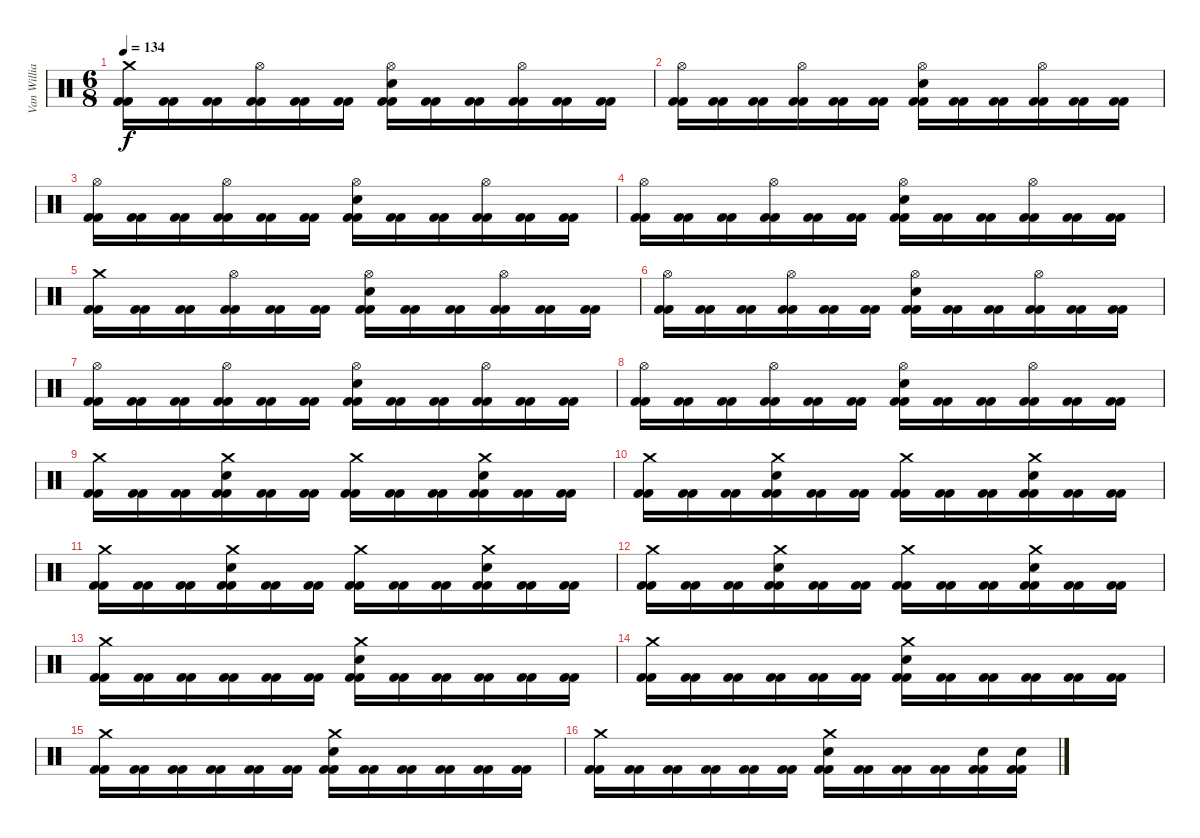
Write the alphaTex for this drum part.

\track ("Van Williams" "Van Willia") {instrument percussion}
\staff {score}
\articulation defaults
\ts (6 8)
\tempo 134
\clef neutral
\ks c
("Crash medium (hit)" "Kick (hit) 2" "Kick (hit) 2").16{dy f} ("Kick (hit) 2" "Kick (hit) 2").16 ("Kick (hit) 2" "Kick (hit) 2").16 ("Hi-Hat (open)" "Kick (hit) 2" "Kick (hit) 2").16 ("Kick (hit) 2" "Kick (hit) 2").16 ("Kick (hit) 2" "Kick (hit) 2").16 ("Hi-Hat (open)" "Electric Snare (hit)" "Kick (hit) 2" "Kick (hit) 2").16 ("Kick (hit) 2" "Kick (hit) 2").16 ("Kick (hit) 2" "Kick (hit) 2").16 ("Hi-Hat (open)" "Kick (hit) 2" "Kick (hit) 2").16 ("Kick (hit) 2" "Kick (hit) 2").16 ("Kick (hit) 2" "Kick (hit) 2").16 |
("Hi-Hat (open)" "Kick (hit) 2" "Kick (hit) 2").16 ("Kick (hit) 2" "Kick (hit) 2").16 ("Kick (hit) 2" "Kick (hit) 2").16 ("Hi-Hat (open)" "Kick (hit) 2" "Kick (hit) 2").16 ("Kick (hit) 2" "Kick (hit) 2").16 ("Kick (hit) 2" "Kick (hit) 2").16 ("Hi-Hat (open)" "Electric Snare (hit)" "Kick (hit) 2" "Kick (hit) 2").16 ("Kick (hit) 2" "Kick (hit) 2").16 ("Kick (hit) 2" "Kick (hit) 2").16 ("Hi-Hat (open)" "Kick (hit) 2" "Kick (hit) 2").16 ("Kick (hit) 2" "Kick (hit) 2").16 ("Kick (hit) 2" "Kick (hit) 2").16 |
("Hi-Hat (open)" "Kick (hit) 2" "Kick (hit) 2").16 ("Kick (hit) 2" "Kick (hit) 2").16 ("Kick (hit) 2" "Kick (hit) 2").16 ("Hi-Hat (open)" "Kick (hit) 2" "Kick (hit) 2").16 ("Kick (hit) 2" "Kick (hit) 2").16 ("Kick (hit) 2" "Kick (hit) 2").16 ("Hi-Hat (open)" "Electric Snare (hit)" "Kick (hit) 2" "Kick (hit) 2").16 ("Kick (hit) 2" "Kick (hit) 2").16 ("Kick (hit) 2" "Kick (hit) 2").16 ("Hi-Hat (open)" "Kick (hit) 2" "Kick (hit) 2").16 ("Kick (hit) 2" "Kick (hit) 2").16 ("Kick (hit) 2" "Kick (hit) 2").16 |
("Hi-Hat (open)" "Kick (hit) 2" "Kick (hit) 2").16 ("Kick (hit) 2" "Kick (hit) 2").16 ("Kick (hit) 2" "Kick (hit) 2").16 ("Hi-Hat (open)" "Kick (hit) 2" "Kick (hit) 2").16 ("Kick (hit) 2" "Kick (hit) 2").16 ("Kick (hit) 2" "Kick (hit) 2").16 ("Hi-Hat (open)" "Electric Snare (hit)" "Kick (hit) 2" "Kick (hit) 2").16 ("Kick (hit) 2" "Kick (hit) 2").16 ("Kick (hit) 2" "Kick (hit) 2").16 ("Hi-Hat (open)" "Kick (hit) 2" "Kick (hit) 2").16 ("Kick (hit) 2" "Kick (hit) 2").16 ("Kick (hit) 2" "Kick (hit) 2").16 |
("Crash medium (hit)" "Kick (hit) 2" "Kick (hit) 2").16 ("Kick (hit) 2" "Kick (hit) 2").16 ("Kick (hit) 2" "Kick (hit) 2").16 ("Hi-Hat (open)" "Kick (hit) 2" "Kick (hit) 2").16 ("Kick (hit) 2" "Kick (hit) 2").16 ("Kick (hit) 2" "Kick (hit) 2").16 ("Hi-Hat (open)" "Electric Snare (hit)" "Kick (hit) 2" "Kick (hit) 2").16 ("Kick (hit) 2" "Kick (hit) 2").16 ("Kick (hit) 2" "Kick (hit) 2").16 ("Hi-Hat (open)" "Kick (hit) 2" "Kick (hit) 2").16 ("Kick (hit) 2" "Kick (hit) 2").16 ("Kick (hit) 2" "Kick (hit) 2").16 |
("Hi-Hat (open)" "Kick (hit) 2" "Kick (hit) 2").16 ("Kick (hit) 2" "Kick (hit) 2").16 ("Kick (hit) 2" "Kick (hit) 2").16 ("Hi-Hat (open)" "Kick (hit) 2" "Kick (hit) 2").16 ("Kick (hit) 2" "Kick (hit) 2").16 ("Kick (hit) 2" "Kick (hit) 2").16 ("Hi-Hat (open)" "Electric Snare (hit)" "Kick (hit) 2" "Kick (hit) 2").16 ("Kick (hit) 2" "Kick (hit) 2").16 ("Kick (hit) 2" "Kick (hit) 2").16 ("Hi-Hat (open)" "Kick (hit) 2" "Kick (hit) 2").16 ("Kick (hit) 2" "Kick (hit) 2").16 ("Kick (hit) 2" "Kick (hit) 2").16 |
("Hi-Hat (open)" "Kick (hit) 2" "Kick (hit) 2").16 ("Kick (hit) 2" "Kick (hit) 2").16 ("Kick (hit) 2" "Kick (hit) 2").16 ("Hi-Hat (open)" "Kick (hit) 2" "Kick (hit) 2").16 ("Kick (hit) 2" "Kick (hit) 2").16 ("Kick (hit) 2" "Kick (hit) 2").16 ("Hi-Hat (open)" "Electric Snare (hit)" "Kick (hit) 2" "Kick (hit) 2").16 ("Kick (hit) 2" "Kick (hit) 2").16 ("Kick (hit) 2" "Kick (hit) 2").16 ("Hi-Hat (open)" "Kick (hit) 2" "Kick (hit) 2").16 ("Kick (hit) 2" "Kick (hit) 2").16 ("Kick (hit) 2" "Kick (hit) 2").16 |
("Hi-Hat (open)" "Kick (hit) 2" "Kick (hit) 2").16 ("Kick (hit) 2" "Kick (hit) 2").16 ("Kick (hit) 2" "Kick (hit) 2").16 ("Hi-Hat (open)" "Kick (hit) 2" "Kick (hit) 2").16 ("Kick (hit) 2" "Kick (hit) 2").16 ("Kick (hit) 2" "Kick (hit) 2").16 ("Hi-Hat (open)" "Electric Snare (hit)" "Kick (hit) 2" "Kick (hit) 2").16 ("Kick (hit) 2" "Kick (hit) 2").16 ("Kick (hit) 2" "Kick (hit) 2").16 ("Hi-Hat (open)" "Kick (hit) 2" "Kick (hit) 2").16 ("Kick (hit) 2" "Kick (hit) 2").16 ("Kick (hit) 2" "Kick (hit) 2").16 |
("Crash medium (hit)" "Kick (hit) 2" "Kick (hit) 2").16 ("Kick (hit) 2" "Kick (hit) 2").16 ("Kick (hit) 2" "Kick (hit) 2").16 ("Crash medium (hit)" "Electric Snare (hit)" "Kick (hit) 2" "Kick (hit) 2").16 ("Kick (hit) 2" "Kick (hit) 2").16 ("Kick (hit) 2" "Kick (hit) 2").16 ("Crash medium (hit)" "Kick (hit) 2" "Kick (hit) 2").16 ("Kick (hit) 2" "Kick (hit) 2").16 ("Kick (hit) 2" "Kick (hit) 2").16 ("Crash medium (hit)" "Electric Snare (hit)" "Kick (hit) 2" "Kick (hit) 2").16 ("Kick (hit) 2" "Kick (hit) 2").16 ("Kick (hit) 2" "Kick (hit) 2").16 |
("Crash medium (hit)" "Kick (hit) 2" "Kick (hit) 2").16 ("Kick (hit) 2" "Kick (hit) 2").16 ("Kick (hit) 2" "Kick (hit) 2").16 ("Crash medium (hit)" "Electric Snare (hit)" "Kick (hit) 2" "Kick (hit) 2").16 ("Kick (hit) 2" "Kick (hit) 2").16 ("Kick (hit) 2" "Kick (hit) 2").16 ("Crash medium (hit)" "Kick (hit) 2" "Kick (hit) 2").16 ("Kick (hit) 2" "Kick (hit) 2").16 ("Kick (hit) 2" "Kick (hit) 2").16 ("Crash medium (hit)" "Electric Snare (hit)" "Kick (hit) 2" "Kick (hit) 2").16 ("Kick (hit) 2" "Kick (hit) 2").16 ("Kick (hit) 2" "Kick (hit) 2").16 |
("Crash medium (hit)" "Kick (hit) 2" "Kick (hit) 2").16 ("Kick (hit) 2" "Kick (hit) 2").16 ("Kick (hit) 2" "Kick (hit) 2").16 ("Crash medium (hit)" "Electric Snare (hit)" "Kick (hit) 2" "Kick (hit) 2").16 ("Kick (hit) 2" "Kick (hit) 2").16 ("Kick (hit) 2" "Kick (hit) 2").16 ("Crash medium (hit)" "Kick (hit) 2" "Kick (hit) 2").16 ("Kick (hit) 2" "Kick (hit) 2").16 ("Kick (hit) 2" "Kick (hit) 2").16 ("Crash medium (hit)" "Electric Snare (hit)" "Kick (hit) 2" "Kick (hit) 2").16 ("Kick (hit) 2" "Kick (hit) 2").16 ("Kick (hit) 2" "Kick (hit) 2").16 |
("Crash medium (hit)" "Kick (hit) 2" "Kick (hit) 2").16 ("Kick (hit) 2" "Kick (hit) 2").16 ("Kick (hit) 2" "Kick (hit) 2").16 ("Crash medium (hit)" "Electric Snare (hit)" "Kick (hit) 2" "Kick (hit) 2").16 ("Kick (hit) 2" "Kick (hit) 2").16 ("Kick (hit) 2" "Kick (hit) 2").16 ("Crash medium (hit)" "Kick (hit) 2" "Kick (hit) 2").16 ("Kick (hit) 2" "Kick (hit) 2").16 ("Kick (hit) 2" "Kick (hit) 2").16 ("Crash medium (hit)" "Electric Snare (hit)" "Kick (hit) 2" "Kick (hit) 2").16 ("Kick (hit) 2" "Kick (hit) 2").16 ("Kick (hit) 2" "Kick (hit) 2").16 |
("Crash medium (hit)" "Kick (hit) 2" "Kick (hit) 2").16 ("Kick (hit) 2" "Kick (hit) 2").16 ("Kick (hit) 2" "Kick (hit) 2").16 ("Kick (hit) 2" "Kick (hit) 2").16 ("Kick (hit) 2" "Kick (hit) 2").16 ("Kick (hit) 2" "Kick (hit) 2").16 ("Crash medium (hit)" "Electric Snare (hit)" "Kick (hit) 2" "Kick (hit) 2").16 ("Kick (hit) 2" "Kick (hit) 2").16 ("Kick (hit) 2" "Kick (hit) 2").16 ("Kick (hit) 2" "Kick (hit) 2").16 ("Kick (hit) 2" "Kick (hit) 2").16 ("Kick (hit) 2" "Kick (hit) 2").16 |
("Crash medium (hit)" "Kick (hit) 2" "Kick (hit) 2").16 ("Kick (hit) 2" "Kick (hit) 2").16 ("Kick (hit) 2" "Kick (hit) 2").16 ("Kick (hit) 2" "Kick (hit) 2").16 ("Kick (hit) 2" "Kick (hit) 2").16 ("Kick (hit) 2" "Kick (hit) 2").16 ("Crash medium (hit)" "Electric Snare (hit)" "Kick (hit) 2" "Kick (hit) 2").16 ("Kick (hit) 2" "Kick (hit) 2").16 ("Kick (hit) 2" "Kick (hit) 2").16 ("Kick (hit) 2" "Kick (hit) 2").16 ("Kick (hit) 2" "Kick (hit) 2").16 ("Kick (hit) 2" "Kick (hit) 2").16 |
("Crash medium (hit)" "Kick (hit) 2" "Kick (hit) 2").16 ("Kick (hit) 2" "Kick (hit) 2").16 ("Kick (hit) 2" "Kick (hit) 2").16 ("Kick (hit) 2" "Kick (hit) 2").16 ("Kick (hit) 2" "Kick (hit) 2").16 ("Kick (hit) 2" "Kick (hit) 2").16 ("Crash medium (hit)" "Electric Snare (hit)" "Kick (hit) 2" "Kick (hit) 2").16 ("Kick (hit) 2" "Kick (hit) 2").16 ("Kick (hit) 2" "Kick (hit) 2").16 ("Kick (hit) 2" "Kick (hit) 2").16 ("Kick (hit) 2" "Kick (hit) 2").16 ("Kick (hit) 2" "Kick (hit) 2").16 |
("Crash medium (hit)" "Kick (hit) 2" "Kick (hit) 2").16 ("Kick (hit) 2" "Kick (hit) 2").16 ("Kick (hit) 2" "Kick (hit) 2").16 ("Kick (hit) 2" "Kick (hit) 2").16 ("Kick (hit) 2" "Kick (hit) 2").16 ("Kick (hit) 2" "Kick (hit) 2").16 ("Crash medium (hit)" "Electric Snare (hit)" "Kick (hit) 2" "Kick (hit) 2").16 ("Kick (hit) 2" "Kick (hit) 2").16 ("Kick (hit) 2" "Kick (hit) 2").16 ("Kick (hit) 2" "Kick (hit) 2").16 ("Electric Snare (hit)" "Kick (hit) 2" "Kick (hit) 2").16 ("Electric Snare (hit)" "Kick (hit) 2" "Kick (hit) 2").16
